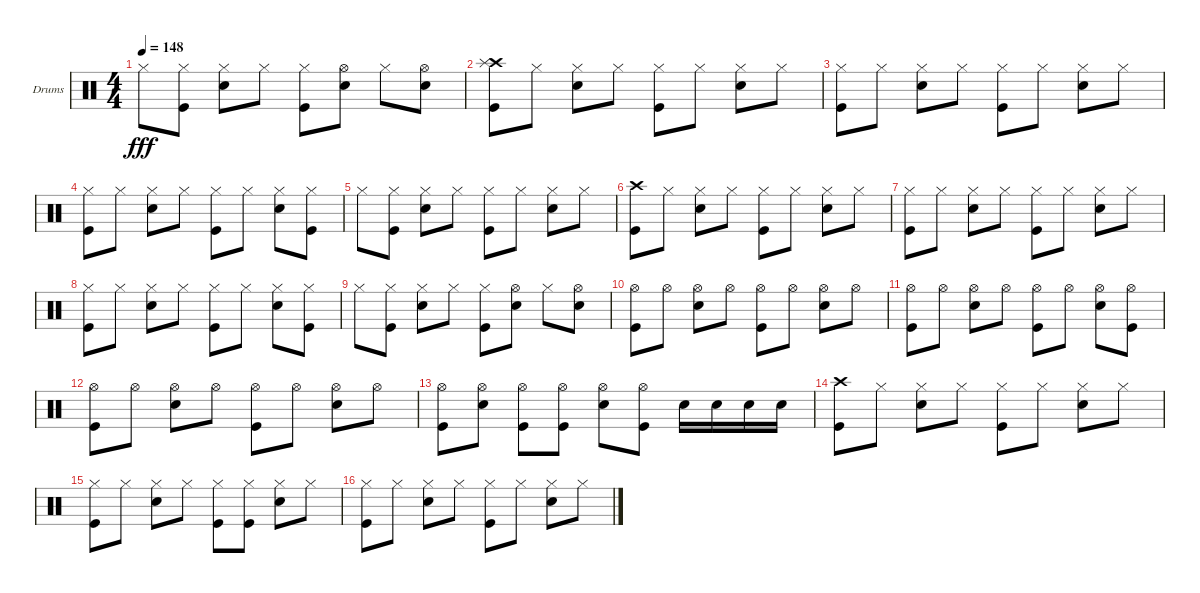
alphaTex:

\bracketExtendMode groupsimilarinstruments
\firstSystemTrackNameOrientation horizontal
\otherSystemsTrackNameOrientation horizontal
\track ("James Kottak" "Drums") {instrument percussion}
\staff {score}
\articulation defaults
\ts (4 4)
\tempo 148
\clef neutral
\ks c "Hi-Hat (closed)".8{dy fff}
("Kick (hit)" "Hi-Hat (closed)").8 ("Snare (hit) 2" "Hi-Hat (closed)").8 "Hi-Hat (closed)".8 ("Hi-Hat (closed)" "Kick (hit)").8 ("Hi-Hat (open)" "Snare (hit) 2").8 "Hi-Hat (closed)".8 ("Hi-Hat (open)" "Snare (hit) 2").8 |
("Kick (hit)" "Crash high (hit)" "Splash (hit)").8 "Hi-Hat (closed)".8 ("Hi-Hat (closed)" "Snare (hit) 2").8 "Hi-Hat (closed)".8 ("Hi-Hat (closed)" "Kick (hit)").8 "Hi-Hat (closed)".8 ("Hi-Hat (closed)" "Snare (hit) 2").8 "Hi-Hat (closed)".8 |
("Kick (hit)" "Hi-Hat (closed)").8 "Hi-Hat (closed)".8 ("Hi-Hat (closed)" "Snare (hit) 2").8 "Hi-Hat (closed)".8 ("Hi-Hat (closed)" "Kick (hit)").8 "Hi-Hat (closed)".8 ("Hi-Hat (closed)" "Snare (hit) 2").8 "Hi-Hat (closed)".8 |
("Kick (hit)" "Hi-Hat (closed)").8 "Hi-Hat (closed)".8 ("Hi-Hat (closed)" "Snare (hit) 2").8 "Hi-Hat (closed)".8 ("Hi-Hat (closed)" "Kick (hit)").8 "Hi-Hat (closed)".8 ("Hi-Hat (closed)" "Snare (hit) 2").8 ("Hi-Hat (closed)" "Kick (hit)").8 |
"Hi-Hat (closed)".8 ("Kick (hit)" "Hi-Hat (closed)").8 ("Snare (hit) 2" "Hi-Hat (closed)").8 "Hi-Hat (closed)".8 ("Hi-Hat (closed)" "Kick (hit)").8 "Hi-Hat (closed)".8 ("Hi-Hat (closed)" "Snare (hit) 2").8 "Hi-Hat (closed)".8 |
("Kick (hit)" "Crash high (hit)").8 "Hi-Hat (closed)".8 ("Hi-Hat (closed)" "Snare (hit) 2").8 "Hi-Hat (closed)".8 ("Hi-Hat (closed)" "Kick (hit)").8 "Hi-Hat (closed)".8 ("Hi-Hat (closed)" "Snare (hit) 2").8 "Hi-Hat (closed)".8 |
("Kick (hit)" "Hi-Hat (closed)").8 "Hi-Hat (closed)".8 ("Hi-Hat (closed)" "Snare (hit) 2").8 "Hi-Hat (closed)".8 ("Hi-Hat (closed)" "Kick (hit)").8 "Hi-Hat (closed)".8 ("Hi-Hat (closed)" "Snare (hit) 2").8 "Hi-Hat (closed)".8 |
("Kick (hit)" "Hi-Hat (closed)").8 "Hi-Hat (closed)".8 ("Hi-Hat (closed)" "Snare (hit) 2").8 "Hi-Hat (closed)".8 ("Hi-Hat (closed)" "Kick (hit)").8 "Hi-Hat (closed)".8 ("Hi-Hat (closed)" "Snare (hit) 2").8 ("Hi-Hat (closed)" "Kick (hit)").8 |
"Hi-Hat (closed)".8 ("Kick (hit)" "Hi-Hat (closed)").8 ("Snare (hit) 2" "Hi-Hat (closed)").8 "Hi-Hat (closed)".8 ("Hi-Hat (closed)" "Kick (hit)").8 ("Hi-Hat (open)" "Snare (hit) 2").8 "Hi-Hat (closed)".8 ("Hi-Hat (open)" "Snare (hit) 2").8 |
("Kick (hit)" "Hi-Hat (open)").8 "Hi-Hat (open)".8 ("Snare (hit) 2" "Hi-Hat (open)").8 "Hi-Hat (open)".8 ("Kick (hit)" "Hi-Hat (open)").8 "Hi-Hat (open)".8 ("Snare (hit) 2" "Hi-Hat (open)").8 "Hi-Hat (open)".8 |
("Kick (hit)" "Hi-Hat (open)").8 "Hi-Hat (open)".8 ("Snare (hit) 2" "Hi-Hat (open)").8 "Hi-Hat (open)".8 ("Kick (hit)" "Hi-Hat (open)").8 "Hi-Hat (open)".8 ("Snare (hit) 2" "Hi-Hat (open)").8 ("Hi-Hat (open)" "Kick (hit)").8 |
("Kick (hit)" "Hi-Hat (open)").8 "Hi-Hat (open)".8 ("Snare (hit) 2" "Hi-Hat (open)").8 "Hi-Hat (open)".8 ("Kick (hit)" "Hi-Hat (open)").8 "Hi-Hat (open)".8 ("Snare (hit) 2" "Hi-Hat (open)").8 "Hi-Hat (open)".8 |
("Kick (hit)" "Hi-Hat (open)").8 ("Hi-Hat (open)" "Snare (hit) 2").8 ("Hi-Hat (open)" "Kick (hit)").8 ("Hi-Hat (open)" "Kick (hit)").8 ("Hi-Hat (open)" "Snare (hit) 2").8 ("Hi-Hat (open)" "Kick (hit)").8 "Snare (hit) 2".16 "Snare (hit) 2".16 "Snare (hit) 2".16 "Snare (hit) 2".16 |
("Kick (hit)" "Crash high (hit)").8 "Hi-Hat (closed)".8 ("Hi-Hat (closed)" "Snare (hit) 2").8 "Hi-Hat (closed)".8 ("Hi-Hat (closed)" "Kick (hit)").8 "Hi-Hat (closed)".8 ("Hi-Hat (closed)" "Snare (hit) 2").8 "Hi-Hat (closed)".8 |
("Hi-Hat (closed)" "Kick (hit)").8 "Hi-Hat (closed)".8 ("Hi-Hat (closed)" "Snare (hit) 2").8 "Hi-Hat (closed)".8 ("Hi-Hat (closed)" "Kick (hit)").8 ("Hi-Hat (closed)" "Kick (hit)").8 ("Hi-Hat (closed)" "Snare (hit) 2").8 "Hi-Hat (closed)".8 |
("Kick (hit)" "Hi-Hat (closed)").8 "Hi-Hat (closed)".8 ("Hi-Hat (closed)" "Snare (hit) 2").8 "Hi-Hat (closed)".8 ("Hi-Hat (closed)" "Kick (hit)").8 "Hi-Hat (closed)".8 ("Hi-Hat (closed)" "Snare (hit) 2").8 "Hi-Hat (closed)".8
